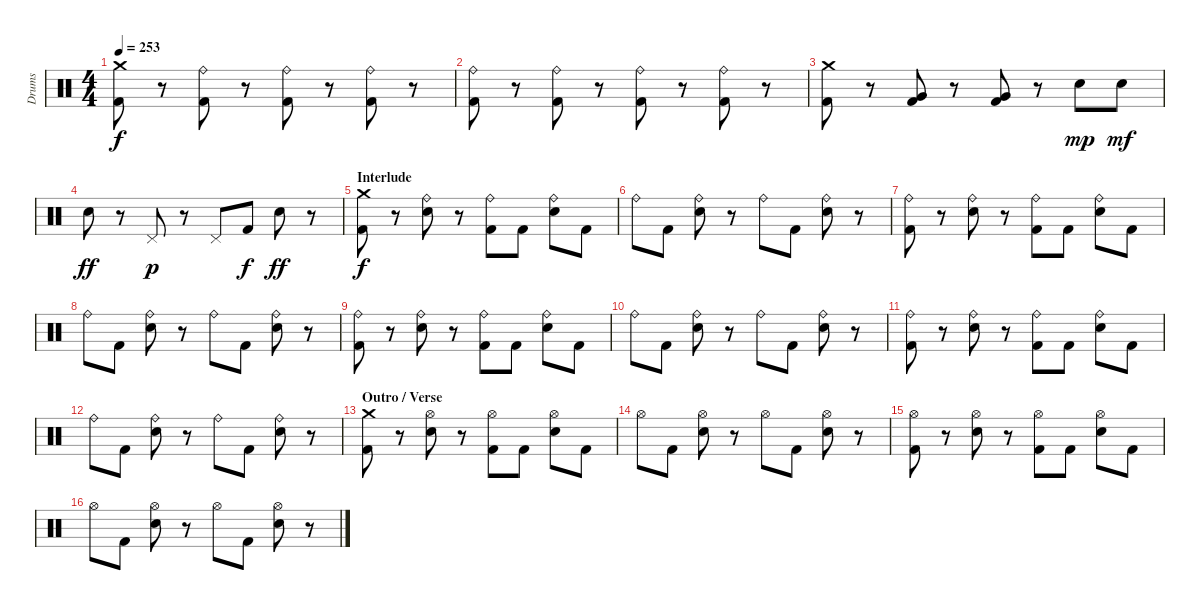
\track ("Drums" "Drums") {instrument percussion}
\staff {score}
\articulation defaults
\ts (4 4)
\tempo 253
\clef neutral
\ks c
("Crash medium (hit)" "Kick (hit) 2").8{dy f} r.8 ("Ride (bell)" "Kick (hit) 2").8 r.8 ("Ride (bell)" "Kick (hit) 2").8 r.8 ("Ride (bell)" "Kick (hit) 2").8 r.8 |
("Ride (bell)" "Kick (hit) 2").8 r.8 ("Ride (bell)" "Kick (hit) 2").8 r.8 ("Ride (bell)" "Kick (hit) 2").8 r.8 ("Ride (bell)" "Kick (hit) 2").8 r.8 |
("Crash medium (hit)" "Kick (hit) 2").8 r.8 ("Very Low Tom (hit)" "Kick (hit) 2").8 r.8 ("Very Low Tom (hit)" "Kick (hit) 2").8 r.8 "Electric Snare (hit)".8{dy mp} "Electric Snare (hit)".8{dy mf} |
"Electric Snare (hit)".8{dy ff} r.8 "Pedal Hi-Hat (hit)".8{dy p} r.8 "Pedal Hi-Hat (hit)".8 "Kick (hit) 2".8{dy f} "Electric Snare (hit)".8{dy ff} r.8 |
\section ("" "Interlude")
("Crash medium (hit)" "Kick (hit) 2").8{dy f} r.8 ("Ride (bell)" "Electric Snare (hit)").8 r.8 ("Ride (bell)" "Kick (hit) 2").8 "Kick (hit) 2".8 ("Ride (bell)" "Electric Snare (hit)").8 "Kick (hit) 2".8 |
"Ride (bell)".8 "Kick (hit) 2".8 ("Ride (bell)" "Electric Snare (hit)").8 r.8 "Ride (bell)".8 "Kick (hit) 2".8 ("Ride (bell)" "Electric Snare (hit)").8 r.8 |
("Ride (bell)" "Kick (hit) 2").8 r.8 ("Ride (bell)" "Electric Snare (hit)").8 r.8 ("Ride (bell)" "Kick (hit) 2").8 "Kick (hit) 2".8 ("Ride (bell)" "Electric Snare (hit)").8 "Kick (hit) 2".8 |
"Ride (bell)".8 "Kick (hit) 2".8 ("Ride (bell)" "Electric Snare (hit)").8 r.8 "Ride (bell)".8 "Kick (hit) 2".8 ("Ride (bell)" "Electric Snare (hit)").8 r.8 |
("Ride (bell)" "Kick (hit) 2").8 r.8 ("Ride (bell)" "Electric Snare (hit)").8 r.8 ("Ride (bell)" "Kick (hit) 2").8 "Kick (hit) 2".8 ("Ride (bell)" "Electric Snare (hit)").8 "Kick (hit) 2".8 |
"Ride (bell)".8 "Kick (hit) 2".8 ("Ride (bell)" "Electric Snare (hit)").8 r.8 "Ride (bell)".8 "Kick (hit) 2".8 ("Ride (bell)" "Electric Snare (hit)").8 r.8 |
("Ride (bell)" "Kick (hit) 2").8 r.8 ("Ride (bell)" "Electric Snare (hit)").8 r.8 ("Ride (bell)" "Kick (hit) 2").8 "Kick (hit) 2".8 ("Ride (bell)" "Electric Snare (hit)").8 "Kick (hit) 2".8 |
"Ride (bell)".8 "Kick (hit) 2".8 ("Ride (bell)" "Electric Snare (hit)").8 r.8 "Ride (bell)".8 "Kick (hit) 2".8 ("Ride (bell)" "Electric Snare (hit)").8 r.8 |
\section ("" "Outro / Verse")
("Crash medium (hit)" "Kick (hit) 2").8 r.8 ("Hi-Hat (open)" "Electric Snare (hit)").8 r.8 ("Hi-Hat (open)" "Kick (hit) 2").8 "Kick (hit) 2".8 ("Hi-Hat (open)" "Electric Snare (hit)").8 "Kick (hit) 2".8 |
"Hi-Hat (open)".8 "Kick (hit) 2".8 ("Hi-Hat (open)" "Electric Snare (hit)").8 r.8 "Hi-Hat (open)".8 "Kick (hit) 2".8 ("Hi-Hat (open)" "Electric Snare (hit)").8 r.8 |
("Hi-Hat (open)" "Kick (hit) 2").8 r.8 ("Hi-Hat (open)" "Electric Snare (hit)").8 r.8 ("Hi-Hat (open)" "Kick (hit) 2").8 "Kick (hit) 2".8 ("Hi-Hat (open)" "Electric Snare (hit)").8 "Kick (hit) 2".8 |
"Hi-Hat (open)".8 "Kick (hit) 2".8 ("Hi-Hat (open)" "Electric Snare (hit)").8 r.8 "Hi-Hat (open)".8 "Kick (hit) 2".8 ("Hi-Hat (open)" "Electric Snare (hit)").8 r.8
